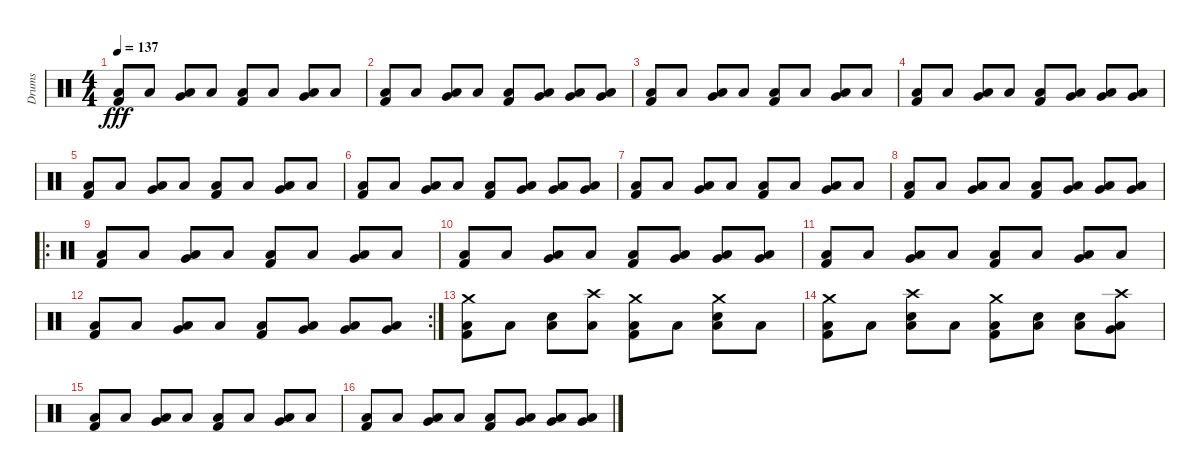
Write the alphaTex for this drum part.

\track ("Drums" "Drums") {instrument percussion}
\staff {score}
\articulation defaults
\ts (4 4)
\tempo 137
\clef neutral
\ks c
("Low Floor Tom (hit)" "Kick (hit) 2").8{dy fff} "Low Floor Tom (hit)".8 ("Very Low Tom (hit)" "Low Floor Tom (hit)").8 "Low Floor Tom (hit)".8 ("Low Floor Tom (hit)" "Kick (hit) 2").8 "Low Floor Tom (hit)".8 ("Very Low Tom (hit)" "Low Floor Tom (hit)").8 "Low Floor Tom (hit)".8 |
("Low Floor Tom (hit)" "Kick (hit) 2").8 "Low Floor Tom (hit)".8 ("Very Low Tom (hit)" "Low Floor Tom (hit)").8 "Low Floor Tom (hit)".8 ("Low Floor Tom (hit)" "Kick (hit) 2").8 ("Very Low Tom (hit)" "Low Floor Tom (hit)").8 ("Very Low Tom (hit)" "Low Floor Tom (hit)").8 ("Very Low Tom (hit)" "Low Floor Tom (hit)").8 |
("Low Floor Tom (hit)" "Kick (hit) 2").8 "Low Floor Tom (hit)".8 ("Very Low Tom (hit)" "Low Floor Tom (hit)").8 "Low Floor Tom (hit)".8 ("Low Floor Tom (hit)" "Kick (hit) 2").8 "Low Floor Tom (hit)".8 ("Very Low Tom (hit)" "Low Floor Tom (hit)").8 "Low Floor Tom (hit)".8 |
("Low Floor Tom (hit)" "Kick (hit) 2").8 "Low Floor Tom (hit)".8 ("Very Low Tom (hit)" "Low Floor Tom (hit)").8 "Low Floor Tom (hit)".8 ("Low Floor Tom (hit)" "Kick (hit) 2").8 ("Very Low Tom (hit)" "Low Floor Tom (hit)").8 ("Very Low Tom (hit)" "Low Floor Tom (hit)").8 ("Very Low Tom (hit)" "Low Floor Tom (hit)").8 |
("Low Floor Tom (hit)" "Kick (hit) 2").8 "Low Floor Tom (hit)".8 ("Very Low Tom (hit)" "Low Floor Tom (hit)").8 "Low Floor Tom (hit)".8 ("Low Floor Tom (hit)" "Kick (hit) 2").8 "Low Floor Tom (hit)".8 ("Very Low Tom (hit)" "Low Floor Tom (hit)").8 "Low Floor Tom (hit)".8 |
("Low Floor Tom (hit)" "Kick (hit) 2").8 "Low Floor Tom (hit)".8 ("Very Low Tom (hit)" "Low Floor Tom (hit)").8 "Low Floor Tom (hit)".8 ("Low Floor Tom (hit)" "Kick (hit) 2").8 ("Very Low Tom (hit)" "Low Floor Tom (hit)").8 ("Very Low Tom (hit)" "Low Floor Tom (hit)").8 ("Very Low Tom (hit)" "Low Floor Tom (hit)").8 |
("Low Floor Tom (hit)" "Kick (hit) 2").8 "Low Floor Tom (hit)".8 ("Very Low Tom (hit)" "Low Floor Tom (hit)").8 "Low Floor Tom (hit)".8 ("Low Floor Tom (hit)" "Kick (hit) 2").8 "Low Floor Tom (hit)".8 ("Very Low Tom (hit)" "Low Floor Tom (hit)").8 "Low Floor Tom (hit)".8 |
("Low Floor Tom (hit)" "Kick (hit) 2").8 "Low Floor Tom (hit)".8 ("Very Low Tom (hit)" "Low Floor Tom (hit)").8 "Low Floor Tom (hit)".8 ("Low Floor Tom (hit)" "Kick (hit) 2").8 ("Very Low Tom (hit)" "Low Floor Tom (hit)").8 ("Very Low Tom (hit)" "Low Floor Tom (hit)").8 ("Very Low Tom (hit)" "Low Floor Tom (hit)").8 |
\ro
("Low Floor Tom (hit)" "Kick (hit) 2").8 "Low Floor Tom (hit)".8 ("Very Low Tom (hit)" "Low Floor Tom (hit)").8 "Low Floor Tom (hit)".8 ("Low Floor Tom (hit)" "Kick (hit) 2").8 "Low Floor Tom (hit)".8 ("Very Low Tom (hit)" "Low Floor Tom (hit)").8 "Low Floor Tom (hit)".8 |
("Low Floor Tom (hit)" "Kick (hit) 2").8 "Low Floor Tom (hit)".8 ("Very Low Tom (hit)" "Low Floor Tom (hit)").8 "Low Floor Tom (hit)".8 ("Low Floor Tom (hit)" "Kick (hit) 2").8 ("Very Low Tom (hit)" "Low Floor Tom (hit)").8 ("Very Low Tom (hit)" "Low Floor Tom (hit)").8 ("Very Low Tom (hit)" "Low Floor Tom (hit)").8 |
("Low Floor Tom (hit)" "Kick (hit) 2").8 "Low Floor Tom (hit)".8 ("Very Low Tom (hit)" "Low Floor Tom (hit)").8 "Low Floor Tom (hit)".8 ("Low Floor Tom (hit)" "Kick (hit) 2").8 "Low Floor Tom (hit)".8 ("Very Low Tom (hit)" "Low Floor Tom (hit)").8 "Low Floor Tom (hit)".8 |
\rc 2
("Low Floor Tom (hit)" "Kick (hit) 2").8 "Low Floor Tom (hit)".8 ("Very Low Tom (hit)" "Low Floor Tom (hit)").8 "Low Floor Tom (hit)".8 ("Low Floor Tom (hit)" "Kick (hit) 2").8 ("Very Low Tom (hit)" "Low Floor Tom (hit)").8 ("Very Low Tom (hit)" "Low Floor Tom (hit)").8 ("Very Low Tom (hit)" "Low Floor Tom (hit)").8 |
("Crash medium (hit)" "Low Floor Tom (hit)" "Kick (hit) 2").8 "Low Floor Tom (hit)".8 ("Electric Snare (hit)" "Low Floor Tom (hit)").8 ("Low Floor Tom (hit)" "Crash high (hit)").8 ("Crash medium (hit)" "Low Floor Tom (hit)" "Kick (hit) 2").8 "Low Floor Tom (hit)".8 ("Electric Snare (hit)" "Low Floor Tom (hit)" "Crash medium (hit)").8 "Low Floor Tom (hit)".8 |
("Crash medium (hit)" "Low Floor Tom (hit)" "Kick (hit) 2").8 "Low Floor Tom (hit)".8 ("Electric Snare (hit)" "Low Floor Tom (hit)" "Crash high (hit)").8 "Low Floor Tom (hit)".8 ("Crash medium (hit)" "Low Floor Tom (hit)" "Kick (hit) 2").8 ("Electric Snare (hit)" "Low Floor Tom (hit)").8 ("Electric Snare (hit)" "Low Floor Tom (hit)").8 ("Very Low Tom (hit)" "Low Floor Tom (hit)" "Crash high (hit)").8 |
("Low Floor Tom (hit)" "Kick (hit) 2").8 "Low Floor Tom (hit)".8 ("Very Low Tom (hit)" "Low Floor Tom (hit)").8 "Low Floor Tom (hit)".8 ("Low Floor Tom (hit)" "Kick (hit) 2").8 "Low Floor Tom (hit)".8 ("Very Low Tom (hit)" "Low Floor Tom (hit)").8 "Low Floor Tom (hit)".8 |
("Low Floor Tom (hit)" "Kick (hit) 2").8 "Low Floor Tom (hit)".8 ("Very Low Tom (hit)" "Low Floor Tom (hit)").8 "Low Floor Tom (hit)".8 ("Low Floor Tom (hit)" "Kick (hit) 2").8 ("Very Low Tom (hit)" "Low Floor Tom (hit)").8 ("Very Low Tom (hit)" "Low Floor Tom (hit)").8 ("Very Low Tom (hit)" "Low Floor Tom (hit)").8
